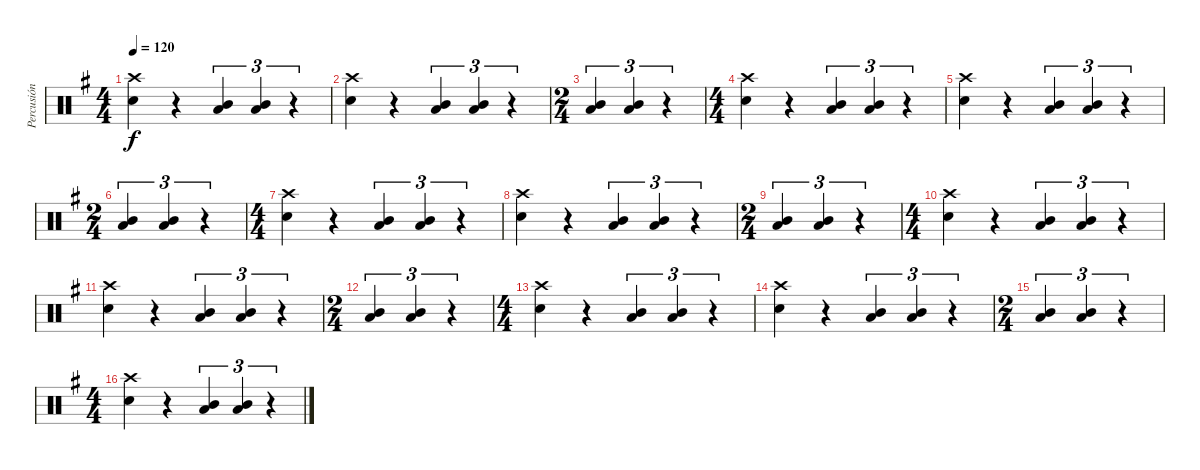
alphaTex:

\track ("Percusión" "Percusión") {instrument percussion}
\staff {score}
\articulation defaults
\ts (4 4)
\tempo 120
\clef neutral
\ks g
("Crash high (hit)" "Snare (hit) 2").4{dy f} r.4 ("Mid Tom (hit)" "Low Tom (hit)").4{tu (3 2)} ("Mid Tom (hit)" "Low Tom (hit)").4{tu (3 2)} r.4{tu (3 2)} |
("Crash high (hit)" "Snare (hit) 2").4 r.4 ("Mid Tom (hit)" "Low Tom (hit)").4{tu (3 2)} ("Mid Tom (hit)" "Low Tom (hit)").4{tu (3 2)} r.4{tu (3 2)} |
\ts (2 4)
("Mid Tom (hit)" "Low Tom (hit)").4{tu (3 2)} ("Mid Tom (hit)" "Low Tom (hit)").4{tu (3 2)} r.4{tu (3 2)} |
\ts (4 4)
("Crash high (hit)" "Snare (hit) 2").4 r.4 ("Mid Tom (hit)" "Low Tom (hit)").4{tu (3 2)} ("Mid Tom (hit)" "Low Tom (hit)").4{tu (3 2)} r.4{tu (3 2)} |
("Crash high (hit)" "Snare (hit) 2").4 r.4 ("Mid Tom (hit)" "Low Tom (hit)").4{tu (3 2)} ("Mid Tom (hit)" "Low Tom (hit)").4{tu (3 2)} r.4{tu (3 2)} |
\ts (2 4)
("Mid Tom (hit)" "Low Tom (hit)").4{tu (3 2)} ("Mid Tom (hit)" "Low Tom (hit)").4{tu (3 2)} r.4{tu (3 2)} |
\ts (4 4)
("Crash high (hit)" "Snare (hit) 2").4 r.4 ("Mid Tom (hit)" "Low Tom (hit)").4{tu (3 2)} ("Mid Tom (hit)" "Low Tom (hit)").4{tu (3 2)} r.4{tu (3 2)} |
("Crash high (hit)" "Snare (hit) 2").4 r.4 ("Mid Tom (hit)" "Low Tom (hit)").4{tu (3 2)} ("Mid Tom (hit)" "Low Tom (hit)").4{tu (3 2)} r.4{tu (3 2)} |
\ts (2 4)
("Mid Tom (hit)" "Low Tom (hit)").4{tu (3 2)} ("Mid Tom (hit)" "Low Tom (hit)").4{tu (3 2)} r.4{tu (3 2)} |
\ts (4 4)
("Crash high (hit)" "Snare (hit) 2").4 r.4 ("Mid Tom (hit)" "Low Tom (hit)").4{tu (3 2)} ("Mid Tom (hit)" "Low Tom (hit)").4{tu (3 2)} r.4{tu (3 2)} |
("Crash high (hit)" "Snare (hit) 2").4 r.4 ("Mid Tom (hit)" "Low Tom (hit)").4{tu (3 2)} ("Mid Tom (hit)" "Low Tom (hit)").4{tu (3 2)} r.4{tu (3 2)} |
\ts (2 4)
("Mid Tom (hit)" "Low Tom (hit)").4{tu (3 2)} ("Mid Tom (hit)" "Low Tom (hit)").4{tu (3 2)} r.4{tu (3 2)} |
\ts (4 4)
("Crash high (hit)" "Snare (hit) 2").4 r.4 ("Mid Tom (hit)" "Low Tom (hit)").4{tu (3 2)} ("Mid Tom (hit)" "Low Tom (hit)").4{tu (3 2)} r.4{tu (3 2)} |
("Crash high (hit)" "Snare (hit) 2").4 r.4 ("Mid Tom (hit)" "Low Tom (hit)").4{tu (3 2)} ("Mid Tom (hit)" "Low Tom (hit)").4{tu (3 2)} r.4{tu (3 2)} |
\ts (2 4)
("Mid Tom (hit)" "Low Tom (hit)").4{tu (3 2)} ("Mid Tom (hit)" "Low Tom (hit)").4{tu (3 2)} r.4{tu (3 2)} |
\ts (4 4)
("Crash high (hit)" "Snare (hit) 2").4 r.4 ("Mid Tom (hit)" "Low Tom (hit)").4{tu (3 2)} ("Mid Tom (hit)" "Low Tom (hit)").4{tu (3 2)} r.4{tu (3 2)}
